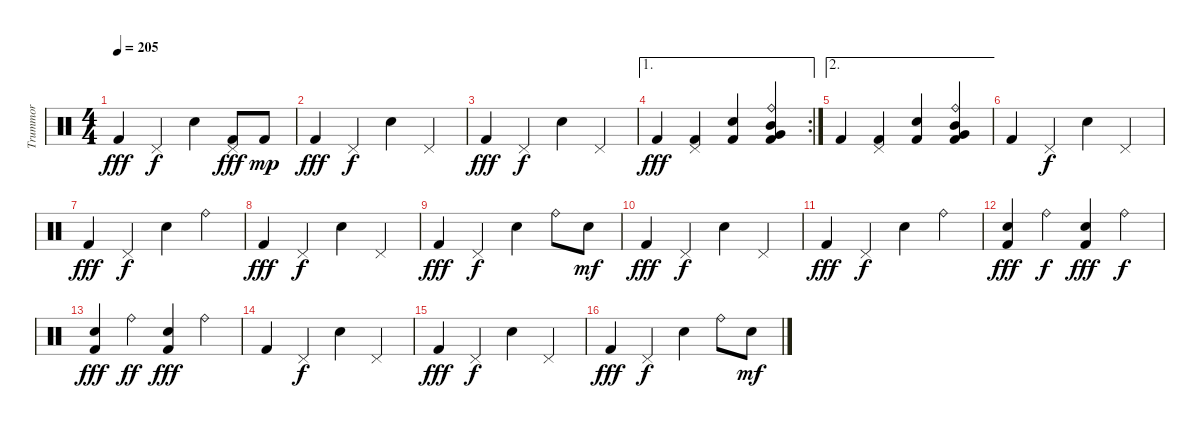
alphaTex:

\track ("Trummor" "Trummor") {instrument percussion}
\staff {score}
\articulation defaults
\ts (4 4)
\tempo 205
\clef neutral
\ks c "Kick (hit) 2".4{dy fff} "Pedal Hi-Hat (hit)".4{dy f} "Electric Snare (hit)".4
("Pedal Hi-Hat (hit)" "Kick (hit) 2").8{dy fff} "Kick (hit) 2".8{dy mp} |
"Kick (hit) 2".4{dy fff} "Pedal Hi-Hat (hit)".4{dy f} "Electric Snare (hit)".4 "Pedal Hi-Hat (hit)".4 |
"Kick (hit) 2".4{dy fff} "Pedal Hi-Hat (hit)".4{dy f} "Electric Snare (hit)".4 "Pedal Hi-Hat (hit)".4 |
\ae 1
\rc 2 "Kick (hit) 2".4{dy fff}
("Pedal Hi-Hat (hit)" "Kick (hit) 2").4 ("Electric Snare (hit)" "Kick (hit) 2").4 ("Ride (bell)" "Mid Tom (hit)" "Very Low Tom (hit)" "Kick (hit) 2").4 |
\ae 2 "Kick (hit) 2".4
("Pedal Hi-Hat (hit)" "Kick (hit) 2").4 ("Electric Snare (hit)" "Kick (hit) 2").4 ("Ride (bell)" "Mid Tom (hit)" "Very Low Tom (hit)" "Kick (hit) 2").4 |
"Kick (hit) 2".4 "Pedal Hi-Hat (hit)".4{dy f} "Electric Snare (hit)".4 "Pedal Hi-Hat (hit)".4 |
"Kick (hit) 2".4{dy fff} "Pedal Hi-Hat (hit)".4{dy f} "Electric Snare (hit)".4 "Ride (bell)".4 |
"Kick (hit) 2".4{dy fff} "Pedal Hi-Hat (hit)".4{dy f} "Electric Snare (hit)".4 "Pedal Hi-Hat (hit)".4 |
"Kick (hit) 2".4{dy fff} "Pedal Hi-Hat (hit)".4{dy f} "Electric Snare (hit)".4 "Ride (bell)".8 "Electric Snare (hit)".8{dy mf} |
"Kick (hit) 2".4{dy fff} "Pedal Hi-Hat (hit)".4{dy f} "Electric Snare (hit)".4 "Pedal Hi-Hat (hit)".4 |
"Kick (hit) 2".4{dy fff} "Pedal Hi-Hat (hit)".4{dy f} "Electric Snare (hit)".4 "Ride (bell)".4 |
("Electric Snare (hit)" "Kick (hit) 2").4{dy fff} "Ride (bell)".4{dy f} ("Electric Snare (hit)" "Kick (hit) 2").4{dy fff} "Ride (bell)".4{dy f} |
("Electric Snare (hit)" "Kick (hit) 2").4{dy fff} "Ride (bell)".4{dy ff} ("Electric Snare (hit)" "Kick (hit) 2").4{dy fff} "Ride (bell)".4 |
"Kick (hit) 2".4 "Pedal Hi-Hat (hit)".4{dy f} "Electric Snare (hit)".4 "Pedal Hi-Hat (hit)".4 |
"Kick (hit) 2".4{dy fff} "Pedal Hi-Hat (hit)".4{dy f} "Electric Snare (hit)".4 "Pedal Hi-Hat (hit)".4 |
"Kick (hit) 2".4{dy fff} "Pedal Hi-Hat (hit)".4{dy f} "Electric Snare (hit)".4 "Ride (bell)".8 "Electric Snare (hit)".8{dy mf}
